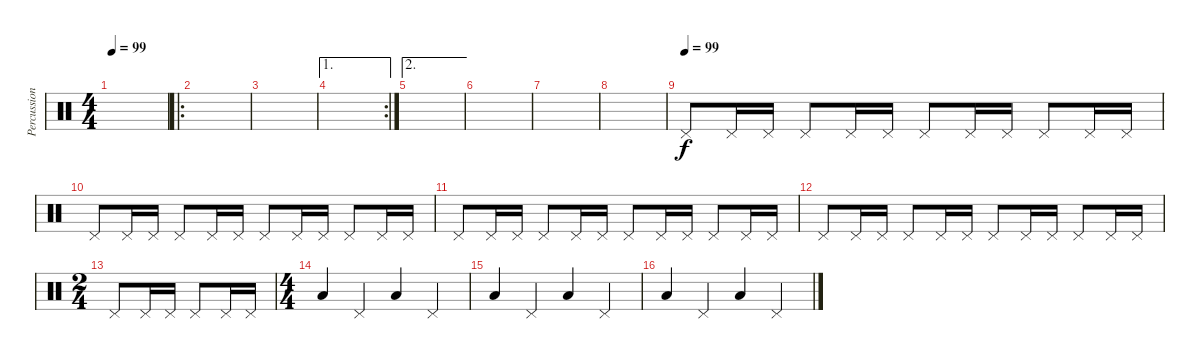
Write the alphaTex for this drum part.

\track ("Percussions" "Percussion") {instrument percussion}
\staff {score}
\articulation defaults
\ts (4 4)
\tempo 99
\tempo 72
\tempo 99
\clef neutral
\ks c
|
\ro
|
|
\ae 1
\rc 2
|
\ae 2
|
|
|
|
\tempo (99)
"Pedal Hi-Hat (hit)".8 "Pedal Hi-Hat (hit)".16 "Pedal Hi-Hat (hit)".16 "Pedal Hi-Hat (hit)".8 "Pedal Hi-Hat (hit)".16 "Pedal Hi-Hat (hit)".16 "Pedal Hi-Hat (hit)".8 "Pedal Hi-Hat (hit)".16 "Pedal Hi-Hat (hit)".16 "Pedal Hi-Hat (hit)".8 "Pedal Hi-Hat (hit)".16 "Pedal Hi-Hat (hit)".16 |
"Pedal Hi-Hat (hit)".8 "Pedal Hi-Hat (hit)".16 "Pedal Hi-Hat (hit)".16 "Pedal Hi-Hat (hit)".8 "Pedal Hi-Hat (hit)".16 "Pedal Hi-Hat (hit)".16 "Pedal Hi-Hat (hit)".8 "Pedal Hi-Hat (hit)".16 "Pedal Hi-Hat (hit)".16 "Pedal Hi-Hat (hit)".8 "Pedal Hi-Hat (hit)".16 "Pedal Hi-Hat (hit)".16 |
"Pedal Hi-Hat (hit)".8 "Pedal Hi-Hat (hit)".16 "Pedal Hi-Hat (hit)".16 "Pedal Hi-Hat (hit)".8 "Pedal Hi-Hat (hit)".16 "Pedal Hi-Hat (hit)".16 "Pedal Hi-Hat (hit)".8 "Pedal Hi-Hat (hit)".16 "Pedal Hi-Hat (hit)".16 "Pedal Hi-Hat (hit)".8 "Pedal Hi-Hat (hit)".16 "Pedal Hi-Hat (hit)".16 |
"Pedal Hi-Hat (hit)".8 "Pedal Hi-Hat (hit)".16 "Pedal Hi-Hat (hit)".16 "Pedal Hi-Hat (hit)".8 "Pedal Hi-Hat (hit)".16 "Pedal Hi-Hat (hit)".16 "Pedal Hi-Hat (hit)".8 "Pedal Hi-Hat (hit)".16 "Pedal Hi-Hat (hit)".16 "Pedal Hi-Hat (hit)".8 "Pedal Hi-Hat (hit)".16 "Pedal Hi-Hat (hit)".16 |
\ts (2 4)
"Pedal Hi-Hat (hit)".8 "Pedal Hi-Hat (hit)".16 "Pedal Hi-Hat (hit)".16 "Pedal Hi-Hat (hit)".8 "Pedal Hi-Hat (hit)".16 "Pedal Hi-Hat (hit)".16 |
\ts (4 4)
"Low Tom (hit)".4 "Pedal Hi-Hat (hit)".4 "Low Tom (hit)".4 "Pedal Hi-Hat (hit)".4 |
"Low Tom (hit)".4 "Pedal Hi-Hat (hit)".4 "Low Tom (hit)".4 "Pedal Hi-Hat (hit)".4 |
"Low Tom (hit)".4 "Pedal Hi-Hat (hit)".4 "Low Tom (hit)".4 "Pedal Hi-Hat (hit)".4
